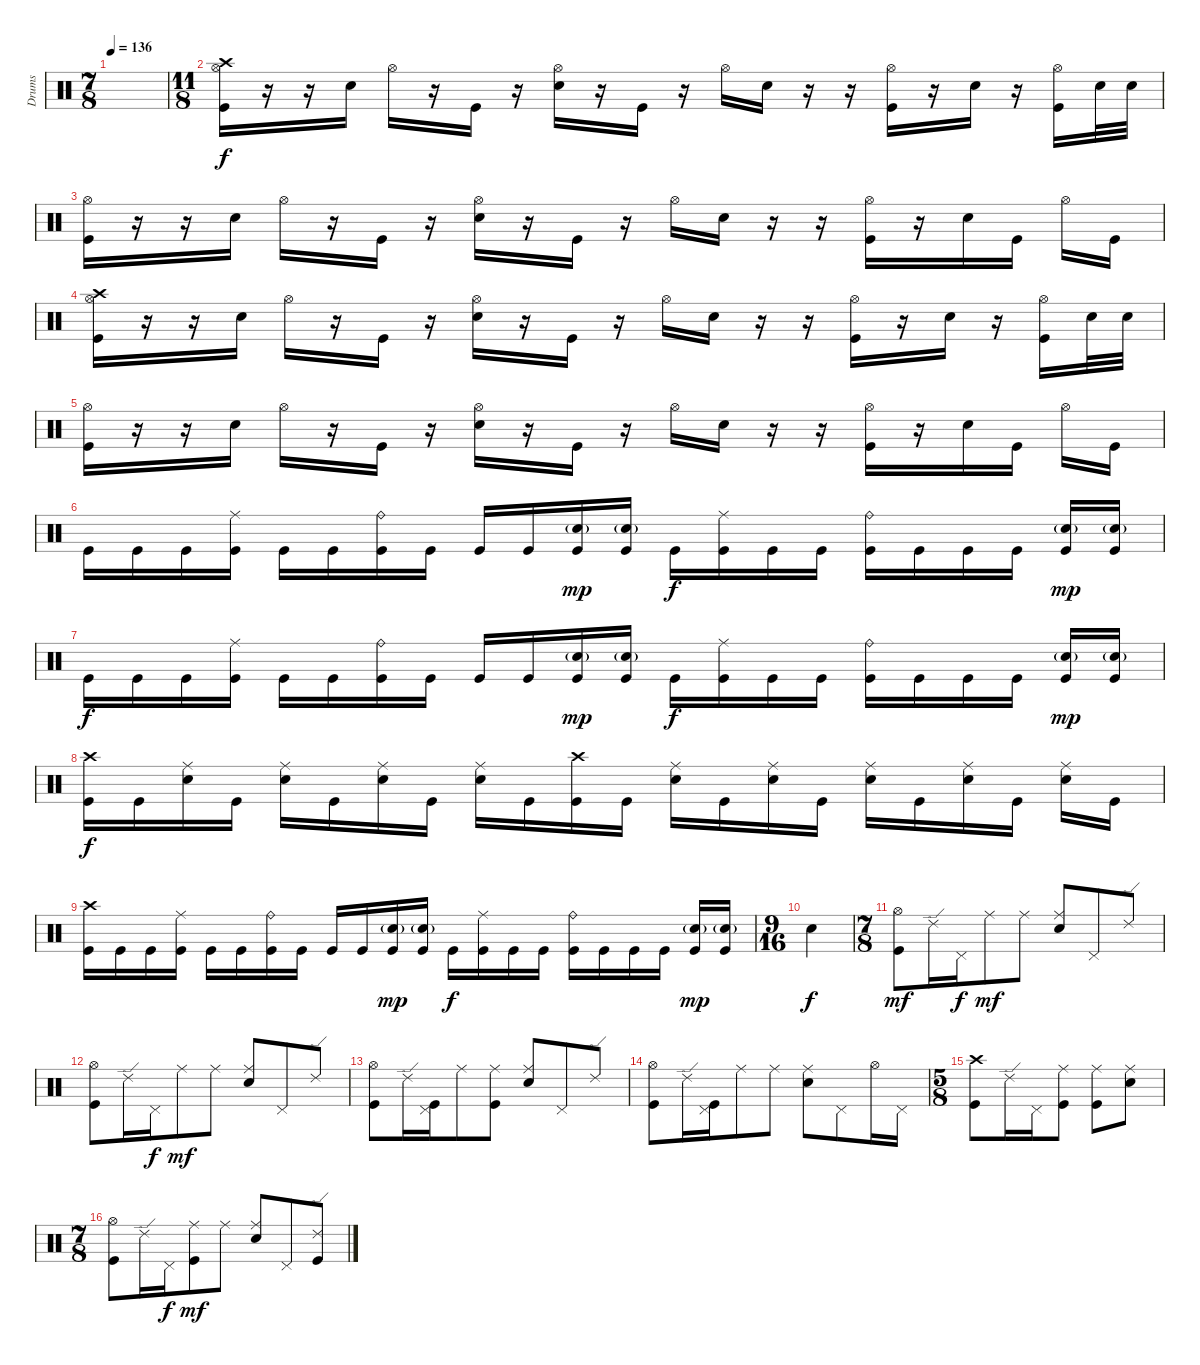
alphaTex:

\track ("Drums" "Drums") {instrument percussion}
\staff {score}
\articulation defaults
\ts (7 8)
\tempo 136
\clef neutral
\ks c
|
\ts (11 8)
("Crash high (hit)" "Hi-Hat (open)" "Kick (hit)").16 r.16 r.16 "Electric Snare (hit)".16 "Hi-Hat (open)".16 r.16 "Kick (hit)".16 r.16 ("Hi-Hat (open)" "Electric Snare (hit)").16 r.16 "Kick (hit)".16 r.16 "Hi-Hat (open)".16 "Electric Snare (hit)".16 r.16 r.16 ("Hi-Hat (open)" "Kick (hit)").16 r.16 "Electric Snare (hit)".16 r.16 ("Hi-Hat (open)" "Kick (hit)").16 "Electric Snare (hit)".32 "Electric Snare (hit)".32 |
("Hi-Hat (open)" "Kick (hit)").16 r.16 r.16 "Electric Snare (hit)".16 "Hi-Hat (open)".16 r.16 "Kick (hit)".16 r.16 ("Hi-Hat (open)" "Electric Snare (hit)").16 r.16 "Kick (hit)".16 r.16 "Hi-Hat (open)".16 "Electric Snare (hit)".16 r.16 r.16 ("Hi-Hat (open)" "Kick (hit)").16 r.16 "Electric Snare (hit)".16 "Kick (hit)".16 "Hi-Hat (open)".16 "Kick (hit)".16 |
("Crash high (hit)" "Hi-Hat (open)" "Kick (hit)").16 r.16 r.16 "Electric Snare (hit)".16 "Hi-Hat (open)".16 r.16 "Kick (hit)".16 r.16 ("Hi-Hat (open)" "Electric Snare (hit)").16 r.16 "Kick (hit)".16 r.16 "Hi-Hat (open)".16 "Electric Snare (hit)".16 r.16 r.16 ("Hi-Hat (open)" "Kick (hit)").16 r.16 "Electric Snare (hit)".16 r.16 ("Hi-Hat (open)" "Kick (hit)").16 "Electric Snare (hit)".32 "Electric Snare (hit)".32 |
("Hi-Hat (open)" "Kick (hit)").16 r.16 r.16 "Electric Snare (hit)".16 "Hi-Hat (open)".16 r.16 "Kick (hit)".16 r.16 ("Hi-Hat (open)" "Electric Snare (hit)").16 r.16 "Kick (hit)".16 r.16 "Hi-Hat (open)".16 "Electric Snare (hit)".16 r.16 r.16 ("Hi-Hat (open)" "Kick (hit)").16 r.16 "Electric Snare (hit)".16 "Kick (hit)".16 "Hi-Hat (open)".16 "Kick (hit)".16 |
"Kick (hit)".16 "Kick (hit)".16 "Kick (hit)".16 ("Ride (middle)" "Kick (hit)").16 "Kick (hit)".16 "Kick (hit)".16 ("Ride (bell)" "Kick (hit)").16 "Kick (hit)".16 "Kick (hit)".16 "Kick (hit)".16 ("Electric Snare (hit)"{g} "Kick (hit)").16{dy mp} ("Electric Snare (hit)"{g} "Kick (hit)").16 "Kick (hit)".16{dy f} ("Ride (middle)" "Kick (hit)").16 "Kick (hit)".16 "Kick (hit)".16 ("Ride (bell)" "Kick (hit)").16 "Kick (hit)".16 "Kick (hit)".16 "Kick (hit)".16 ("Electric Snare (hit)"{g} "Kick (hit)").16{dy mp} ("Electric Snare (hit)"{g} "Kick (hit)").16 |
"Kick (hit)".16{dy f} "Kick (hit)".16 "Kick (hit)".16 ("Ride (middle)" "Kick (hit)").16 "Kick (hit)".16 "Kick (hit)".16 ("Ride (bell)" "Kick (hit)").16 "Kick (hit)".16 "Kick (hit)".16 "Kick (hit)".16 ("Electric Snare (hit)"{g} "Kick (hit)").16{dy mp} ("Electric Snare (hit)"{g} "Kick (hit)").16 "Kick (hit)".16{dy f} ("Ride (middle)" "Kick (hit)").16 "Kick (hit)".16 "Kick (hit)".16 ("Ride (bell)" "Kick (hit)").16 "Kick (hit)".16 "Kick (hit)".16 "Kick (hit)".16 ("Electric Snare (hit)"{g} "Kick (hit)").16{dy mp} ("Electric Snare (hit)"{g} "Kick (hit)").16 |
("Crash high (hit)" "Kick (hit)").16{dy f} "Kick (hit)".16 ("Ride (middle)" "Electric Snare (hit)").16 "Kick (hit)".16 ("Ride (middle)" "Electric Snare (hit)").16 "Kick (hit)".16 ("Ride (middle)" "Electric Snare (hit)").16 "Kick (hit)".16 ("Ride (middle)" "Electric Snare (hit)").16 "Kick (hit)".16 ("Crash high (hit)" "Kick (hit)").16 "Kick (hit)".16 ("Ride (middle)" "Electric Snare (hit)").16 "Kick (hit)".16 ("Ride (middle)" "Electric Snare (hit)").16 "Kick (hit)".16 ("Ride (middle)" "Electric Snare (hit)").16 "Kick (hit)".16 ("Ride (middle)" "Electric Snare (hit)").16 "Kick (hit)".16 ("Ride (middle)" "Electric Snare (hit)").16 "Kick (hit)".16 |
("Crash high (hit)" "Kick (hit)").16 "Kick (hit)".16 "Kick (hit)".16 ("Ride (middle)" "Kick (hit)").16 "Kick (hit)".16 "Kick (hit)".16 ("Ride (bell)" "Kick (hit)").16 "Kick (hit)".16 "Kick (hit)".16 "Kick (hit)".16 ("Electric Snare (hit)"{g} "Kick (hit)").16{dy mp} ("Electric Snare (hit)"{g} "Kick (hit)").16 "Kick (hit)".16{dy f} ("Ride (middle)" "Kick (hit)").16 "Kick (hit)".16 "Kick (hit)".16 ("Ride (bell)" "Kick (hit)").16 "Kick (hit)".16 "Kick (hit)".16 "Kick (hit)".16 ("Electric Snare (hit)"{g} "Kick (hit)").16{dy mp} ("Electric Snare (hit)"{g} "Kick (hit)").16 |
\ts (9 16)
"Electric Snare (hit)".4{dy f} |
\ts (7 8)
("Hi-Hat (open)" "Kick (hit)").8{dy mf} "Ride (edge) 2".16 "Pedal Hi-Hat (hit)".16{dy f} "Ride (middle)".8{dy mf} "Ride (middle)".8 ("Ride (middle)" "Electric Snare (hit)").8 "Pedal Hi-Hat (hit)".8 "Ride (edge) 2".8 |
("Hi-Hat (open)" "Kick (hit)").8 "Ride (edge) 2".16 "Pedal Hi-Hat (hit)".16{dy f} "Ride (middle)".8{dy mf} "Ride (middle)".8 ("Ride (middle)" "Electric Snare (hit)").8 "Pedal Hi-Hat (hit)".8 "Ride (edge) 2".8 |
("Hi-Hat (open)" "Kick (hit)").8 "Ride (edge) 2".16 ("Pedal Hi-Hat (hit)" "Kick (hit)").16 "Ride (middle)".8 ("Ride (middle)" "Kick (hit)").8 ("Ride (middle)" "Electric Snare (hit)").8 "Pedal Hi-Hat (hit)".8 "Ride (edge) 2".8 |
("Hi-Hat (open)" "Kick (hit)").8 "Ride (edge) 2".16 ("Pedal Hi-Hat (hit)" "Kick (hit)").16 "Ride (middle)".8 "Ride (middle)".8 ("Ride (middle)" "Electric Snare (hit)").8 "Pedal Hi-Hat (hit)".8 "Hi-Hat (open)".16 "Pedal Hi-Hat (hit)".16 |
\ts (5 8)
("Crash high (hit)" "Kick (hit)").8 "Ride (edge) 2".16 "Pedal Hi-Hat (hit)".16 ("Ride (middle)" "Kick (hit)").8 ("Ride (middle)" "Kick (hit)").8 ("Ride (middle)" "Electric Snare (hit)").8 |
\ts (7 8)
("Hi-Hat (open)" "Kick (hit)").8 "Ride (edge) 2".16 "Pedal Hi-Hat (hit)".16{dy f} ("Ride (middle)" "Kick (hit)").8{dy mf} "Ride (middle)".8 ("Ride (middle)" "Electric Snare (hit)").8 "Pedal Hi-Hat (hit)".8 ("Ride (edge) 2" "Kick (hit)").8
